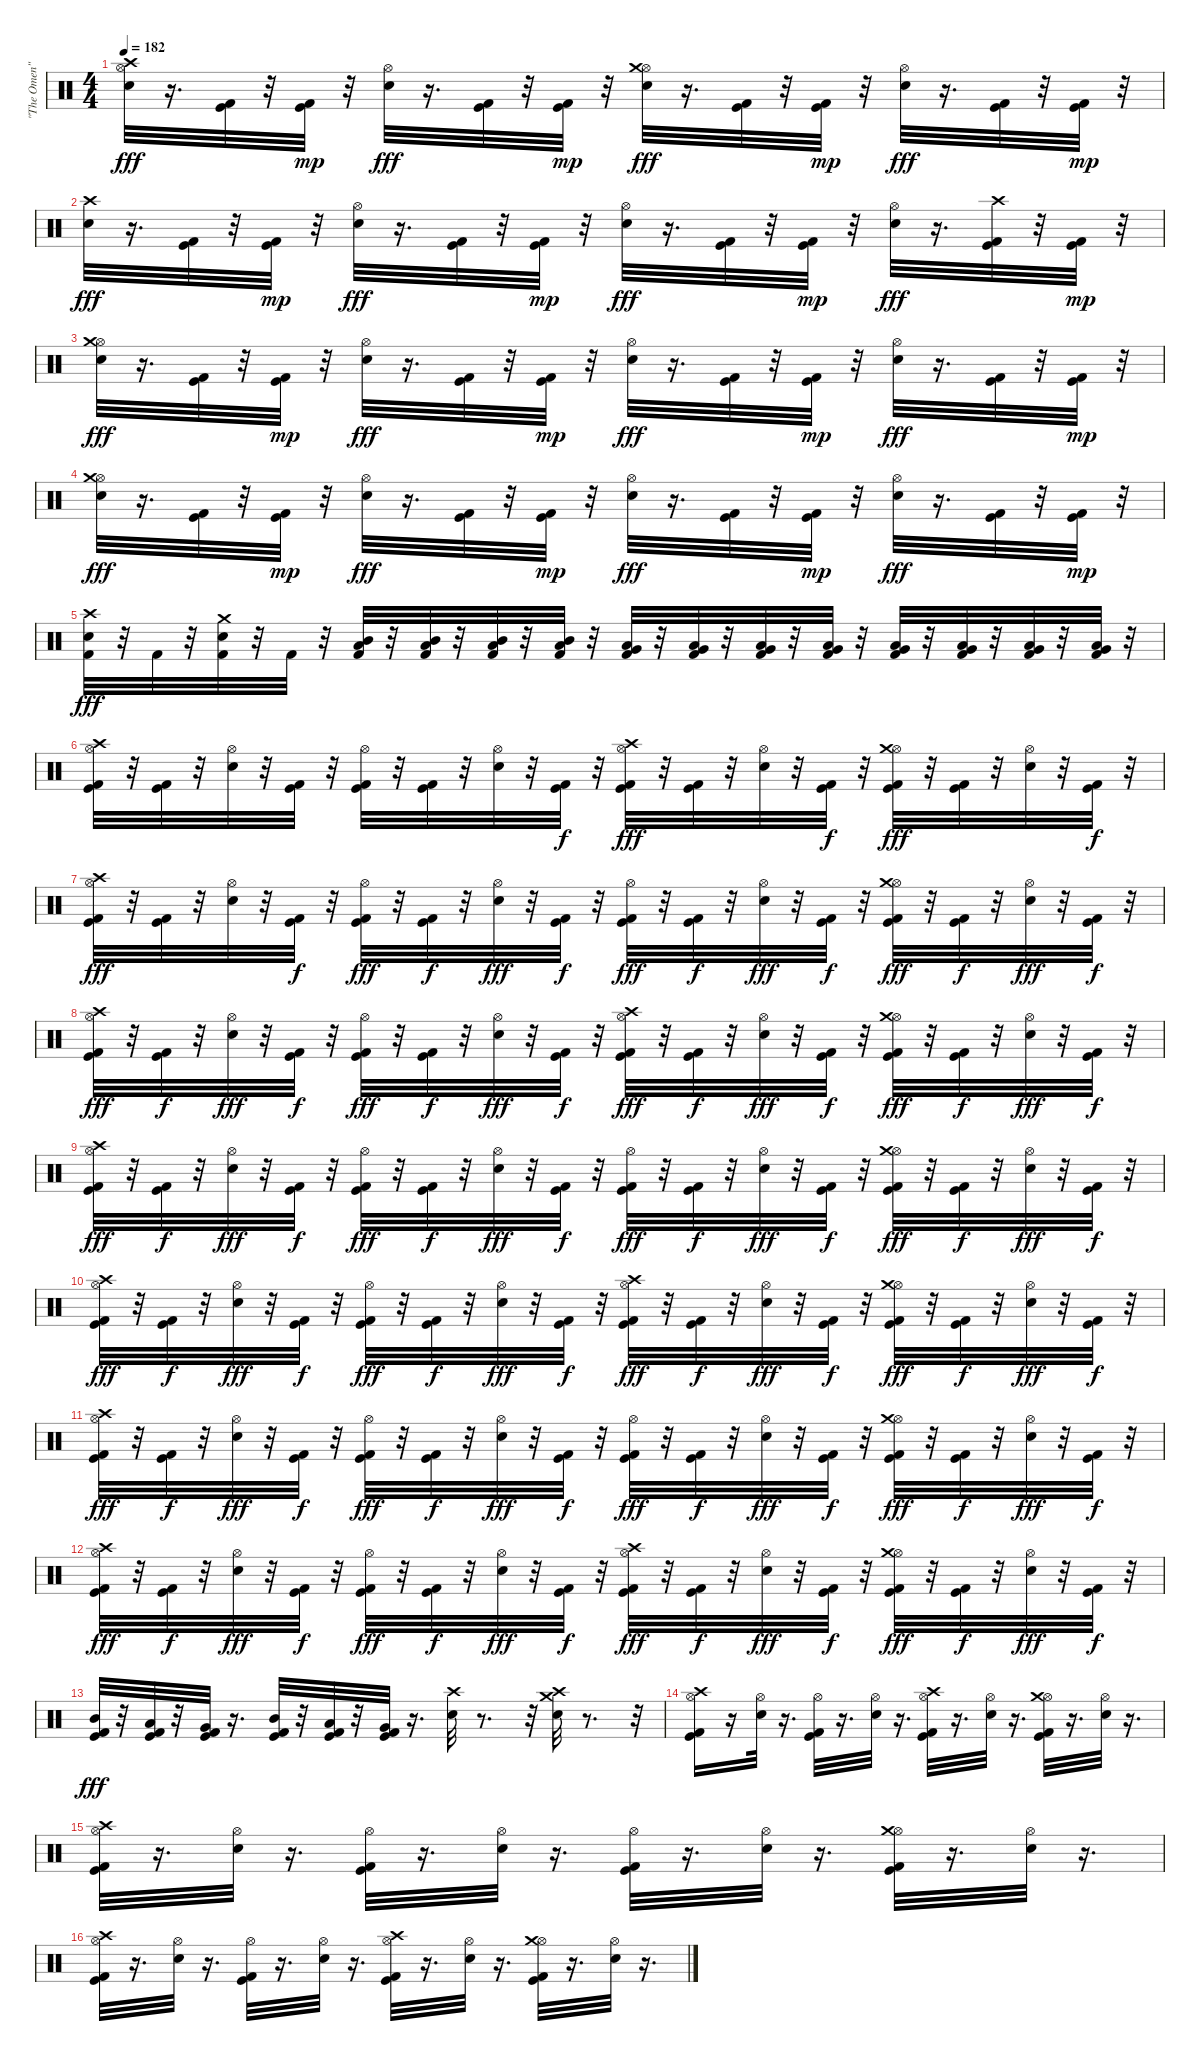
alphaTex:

\track ("\"The Omen\"" "\"The Omen\"") {instrument percussion}
\staff {score}
\articulation defaults
\ts (4 4)
\tempo 182
\clef neutral
\ks c
("Snare (hit) 2" "Hi-Hat (open)" "Crash high (hit)").32{dy fff} r.16{d} ("Kick (hit)" "Kick (hit) 2").32 r.32 ("Kick (hit)" "Kick (hit) 2").32{dy mp} r.32 ("Snare (hit) 2" "Hi-Hat (open)").32{dy fff} r.16{d} ("Kick (hit)" "Kick (hit) 2").32 r.32 ("Kick (hit)" "Kick (hit) 2").32{dy mp} r.32 ("Snare (hit) 2" "Hi-Hat (open)" "Crash medium (hit)").32{dy fff} r.16{d} ("Kick (hit)" "Kick (hit) 2").32 r.32 ("Kick (hit)" "Kick (hit) 2").32{dy mp} r.32 ("Snare (hit) 2" "Hi-Hat (open)").32{dy fff} r.16{d} ("Kick (hit)" "Kick (hit) 2").32 r.32 ("Kick (hit)" "Kick (hit) 2").32{dy mp} r.32 |
("Snare (hit) 2" "Crash high (hit)").32{dy fff} r.16{d} ("Kick (hit)" "Kick (hit) 2").32 r.32 ("Kick (hit)" "Kick (hit) 2").32{dy mp} r.32 ("Snare (hit) 2" "Hi-Hat (open)").32{dy fff} r.16{d} ("Kick (hit)" "Kick (hit) 2").32 r.32 ("Kick (hit)" "Kick (hit) 2").32{dy mp} r.32 ("Snare (hit) 2" "Hi-Hat (open)").32{dy fff} r.16{d} ("Kick (hit)" "Kick (hit) 2").32 r.32 ("Kick (hit)" "Kick (hit) 2").32{dy mp} r.32 ("Snare (hit) 2" "Hi-Hat (open)").32{dy fff} r.16{d} ("Kick (hit)" "Kick (hit) 2" "Crash high (hit)").32 r.32 ("Kick (hit)" "Kick (hit) 2").32{dy mp} r.32 |
("Snare (hit) 2" "Hi-Hat (open)" "Crash medium (hit)").32{dy fff} r.16{d} ("Kick (hit)" "Kick (hit) 2").32 r.32 ("Kick (hit)" "Kick (hit) 2").32{dy mp} r.32 ("Snare (hit) 2" "Hi-Hat (open)").32{dy fff} r.16{d} ("Kick (hit)" "Kick (hit) 2").32 r.32 ("Kick (hit)" "Kick (hit) 2").32{dy mp} r.32 ("Snare (hit) 2" "Hi-Hat (open)").32{dy fff} r.16{d} ("Kick (hit)" "Kick (hit) 2").32 r.32 ("Kick (hit)" "Kick (hit) 2").32{dy mp} r.32 ("Snare (hit) 2" "Hi-Hat (open)").32{dy fff} r.16{d} ("Kick (hit)" "Kick (hit) 2").32 r.32 ("Kick (hit)" "Kick (hit) 2").32{dy mp} r.32 |
("Snare (hit) 2" "Hi-Hat (open)" "Crash medium (hit)").32{dy fff} r.16{d} ("Kick (hit)" "Kick (hit) 2").32 r.32 ("Kick (hit)" "Kick (hit) 2").32{dy mp} r.32 ("Snare (hit) 2" "Hi-Hat (open)").32{dy fff} r.16{d} ("Kick (hit)" "Kick (hit) 2").32 r.32 ("Kick (hit)" "Kick (hit) 2").32{dy mp} r.32 ("Snare (hit) 2" "Hi-Hat (open)").32{dy fff} r.16{d} ("Kick (hit)" "Kick (hit) 2").32 r.32 ("Kick (hit)" "Kick (hit) 2").32{dy mp} r.32 ("Snare (hit) 2" "Hi-Hat (open)").32{dy fff} r.16{d} ("Kick (hit)" "Kick (hit) 2").32 r.32 ("Kick (hit)" "Kick (hit) 2").32{dy mp} r.32 |
("Kick (hit) 2" "Snare (hit) 2" "Crash high (hit)").32{dy fff} r.32 "Kick (hit) 2".32 r.32 ("Kick (hit) 2" "Snare (hit) 2" "Crash medium (hit)").32 r.32 "Kick (hit) 2".32 r.32 ("Kick (hit) 2" "Low Tom (hit)" "Mid Tom (hit)").32 r.32 ("Kick (hit) 2" "Low Tom (hit)" "Mid Tom (hit)").32 r.32 ("Kick (hit) 2" "Low Tom (hit)" "Mid Tom (hit)").32 r.32 ("Kick (hit) 2" "Low Tom (hit)" "Mid Tom (hit)").32 r.32 ("Kick (hit) 2" "Very Low Tom (hit)" "Low Tom (hit)").32 r.32 ("Kick (hit) 2" "Very Low Tom (hit)" "Low Tom (hit)").32 r.32 ("Kick (hit) 2" "Very Low Tom (hit)" "Low Tom (hit)").32 r.32 ("Kick (hit) 2" "Very Low Tom (hit)" "Low Tom (hit)").32 r.32 ("Kick (hit) 2" "Low Floor Tom (hit)" "Very Low Tom (hit)").32 r.32 ("Kick (hit) 2" "Low Floor Tom (hit)" "Very Low Tom (hit)").32 r.32 ("Kick (hit) 2" "Low Floor Tom (hit)" "Very Low Tom (hit)").32 r.32 ("Kick (hit) 2" "Low Floor Tom (hit)" "Very Low Tom (hit)").32 r.32 |
("Kick (hit)" "Kick (hit) 2" "Hi-Hat (open)" "Crash high (hit)").32 r.32 ("Kick (hit)" "Kick (hit) 2").32 r.32 ("Snare (hit) 2" "Hi-Hat (open)").32 r.32 ("Kick (hit)" "Kick (hit) 2").32 r.32 ("Kick (hit)" "Kick (hit) 2" "Hi-Hat (open)").32 r.32 ("Kick (hit)" "Kick (hit) 2").32 r.32 ("Snare (hit) 2" "Hi-Hat (open)").32 r.32 ("Kick (hit)" "Kick (hit) 2").32{dy f} r.32 ("Kick (hit)" "Kick (hit) 2" "Hi-Hat (open)" "Crash high (hit)").32{dy fff} r.32 ("Kick (hit)" "Kick (hit) 2").32 r.32 ("Snare (hit) 2" "Hi-Hat (open)").32 r.32 ("Kick (hit)" "Kick (hit) 2").32{dy f} r.32 ("Kick (hit)" "Kick (hit) 2" "Hi-Hat (open)" "Crash medium (hit)").32{dy fff} r.32 ("Kick (hit)" "Kick (hit) 2").32 r.32 ("Snare (hit) 2" "Hi-Hat (open)").32 r.32 ("Kick (hit)" "Kick (hit) 2").32{dy f} r.32 |
("Kick (hit)" "Kick (hit) 2" "Hi-Hat (open)" "Crash high (hit)").32{dy fff} r.32 ("Kick (hit)" "Kick (hit) 2").32 r.32 ("Snare (hit) 2" "Hi-Hat (open)").32 r.32 ("Kick (hit)" "Kick (hit) 2").32{dy f} r.32 ("Kick (hit)" "Kick (hit) 2" "Hi-Hat (open)").32{dy fff} r.32 ("Kick (hit)" "Kick (hit) 2").32{dy f} r.32 ("Snare (hit) 2" "Hi-Hat (open)").32{dy fff} r.32 ("Kick (hit)" "Kick (hit) 2").32{dy f} r.32 ("Kick (hit)" "Kick (hit) 2" "Hi-Hat (open)").32{dy fff} r.32 ("Kick (hit)" "Kick (hit) 2").32{dy f} r.32 ("Snare (hit) 2" "Hi-Hat (open)").32{dy fff} r.32 ("Kick (hit)" "Kick (hit) 2").32{dy f} r.32 ("Kick (hit)" "Kick (hit) 2" "Hi-Hat (open)" "Crash medium (hit)").32{dy fff} r.32 ("Kick (hit)" "Kick (hit) 2").32{dy f} r.32 ("Snare (hit) 2" "Hi-Hat (open)").32{dy fff} r.32 ("Kick (hit)" "Kick (hit) 2").32{dy f} r.32 |
("Kick (hit)" "Kick (hit) 2" "Hi-Hat (open)" "Crash high (hit)").32{dy fff} r.32 ("Kick (hit)" "Kick (hit) 2").32{dy f} r.32 ("Snare (hit) 2" "Hi-Hat (open)").32{dy fff} r.32 ("Kick (hit)" "Kick (hit) 2").32{dy f} r.32 ("Kick (hit)" "Kick (hit) 2" "Hi-Hat (open)").32{dy fff} r.32 ("Kick (hit)" "Kick (hit) 2").32{dy f} r.32 ("Snare (hit) 2" "Hi-Hat (open)").32{dy fff} r.32 ("Kick (hit)" "Kick (hit) 2").32{dy f} r.32 ("Kick (hit)" "Kick (hit) 2" "Hi-Hat (open)" "Crash high (hit)").32{dy fff} r.32 ("Kick (hit)" "Kick (hit) 2").32{dy f} r.32 ("Snare (hit) 2" "Hi-Hat (open)").32{dy fff} r.32 ("Kick (hit)" "Kick (hit) 2").32{dy f} r.32 ("Kick (hit)" "Kick (hit) 2" "Hi-Hat (open)" "Crash medium (hit)").32{dy fff} r.32 ("Kick (hit)" "Kick (hit) 2").32{dy f} r.32 ("Snare (hit) 2" "Hi-Hat (open)").32{dy fff} r.32 ("Kick (hit)" "Kick (hit) 2").32{dy f} r.32 |
("Kick (hit)" "Kick (hit) 2" "Hi-Hat (open)" "Crash high (hit)").32{dy fff} r.32 ("Kick (hit)" "Kick (hit) 2").32{dy f} r.32 ("Snare (hit) 2" "Hi-Hat (open)").32{dy fff} r.32 ("Kick (hit)" "Kick (hit) 2").32{dy f} r.32 ("Kick (hit)" "Kick (hit) 2" "Hi-Hat (open)").32{dy fff} r.32 ("Kick (hit)" "Kick (hit) 2").32{dy f} r.32 ("Snare (hit) 2" "Hi-Hat (open)").32{dy fff} r.32 ("Kick (hit)" "Kick (hit) 2").32{dy f} r.32 ("Kick (hit)" "Kick (hit) 2" "Hi-Hat (open)").32{dy fff} r.32 ("Kick (hit)" "Kick (hit) 2").32{dy f} r.32 ("Snare (hit) 2" "Hi-Hat (open)").32{dy fff} r.32 ("Kick (hit)" "Kick (hit) 2").32{dy f} r.32 ("Kick (hit)" "Kick (hit) 2" "Hi-Hat (open)" "Crash medium (hit)").32{dy fff} r.32 ("Kick (hit)" "Kick (hit) 2").32{dy f} r.32 ("Snare (hit) 2" "Hi-Hat (open)").32{dy fff} r.32 ("Kick (hit)" "Kick (hit) 2").32{dy f} r.32 |
("Kick (hit)" "Kick (hit) 2" "Hi-Hat (open)" "Crash high (hit)").32{dy fff} r.32 ("Kick (hit)" "Kick (hit) 2").32{dy f} r.32 ("Snare (hit) 2" "Hi-Hat (open)").32{dy fff} r.32 ("Kick (hit)" "Kick (hit) 2").32{dy f} r.32 ("Kick (hit)" "Kick (hit) 2" "Hi-Hat (open)").32{dy fff} r.32 ("Kick (hit)" "Kick (hit) 2").32{dy f} r.32 ("Snare (hit) 2" "Hi-Hat (open)").32{dy fff} r.32 ("Kick (hit)" "Kick (hit) 2").32{dy f} r.32 ("Kick (hit)" "Kick (hit) 2" "Hi-Hat (open)" "Crash high (hit)").32{dy fff} r.32 ("Kick (hit)" "Kick (hit) 2").32{dy f} r.32 ("Snare (hit) 2" "Hi-Hat (open)").32{dy fff} r.32 ("Kick (hit)" "Kick (hit) 2").32{dy f} r.32 ("Kick (hit)" "Kick (hit) 2" "Hi-Hat (open)" "Crash medium (hit)").32{dy fff} r.32 ("Kick (hit)" "Kick (hit) 2").32{dy f} r.32 ("Snare (hit) 2" "Hi-Hat (open)").32{dy fff} r.32 ("Kick (hit)" "Kick (hit) 2").32{dy f} r.32 |
("Kick (hit)" "Kick (hit) 2" "Hi-Hat (open)" "Crash high (hit)").32{dy fff} r.32 ("Kick (hit)" "Kick (hit) 2").32{dy f} r.32 ("Snare (hit) 2" "Hi-Hat (open)").32{dy fff} r.32 ("Kick (hit)" "Kick (hit) 2").32{dy f} r.32 ("Kick (hit)" "Kick (hit) 2" "Hi-Hat (open)").32{dy fff} r.32 ("Kick (hit)" "Kick (hit) 2").32{dy f} r.32 ("Snare (hit) 2" "Hi-Hat (open)").32{dy fff} r.32 ("Kick (hit)" "Kick (hit) 2").32{dy f} r.32 ("Kick (hit)" "Kick (hit) 2" "Hi-Hat (open)").32{dy fff} r.32 ("Kick (hit)" "Kick (hit) 2").32{dy f} r.32 ("Snare (hit) 2" "Hi-Hat (open)").32{dy fff} r.32 ("Kick (hit)" "Kick (hit) 2").32{dy f} r.32 ("Kick (hit)" "Kick (hit) 2" "Hi-Hat (open)" "Crash medium (hit)").32{dy fff} r.32 ("Kick (hit)" "Kick (hit) 2").32{dy f} r.32 ("Snare (hit) 2" "Hi-Hat (open)").32{dy fff} r.32 ("Kick (hit)" "Kick (hit) 2").32{dy f} r.32 |
("Kick (hit)" "Kick (hit) 2" "Hi-Hat (open)" "Crash high (hit)").32{dy fff} r.32 ("Kick (hit)" "Kick (hit) 2").32{dy f} r.32 ("Snare (hit) 2" "Hi-Hat (open)").32{dy fff} r.32 ("Kick (hit)" "Kick (hit) 2").32{dy f} r.32 ("Kick (hit)" "Kick (hit) 2" "Hi-Hat (open)").32{dy fff} r.32 ("Kick (hit)" "Kick (hit) 2").32{dy f} r.32 ("Snare (hit) 2" "Hi-Hat (open)").32{dy fff} r.32 ("Kick (hit)" "Kick (hit) 2").32{dy f} r.32 ("Kick (hit)" "Kick (hit) 2" "Hi-Hat (open)" "Crash high (hit)").32{dy fff} r.32 ("Kick (hit)" "Kick (hit) 2").32{dy f} r.32 ("Snare (hit) 2" "Hi-Hat (open)").32{dy fff} r.32 ("Kick (hit)" "Kick (hit) 2").32{dy f} r.32 ("Kick (hit)" "Kick (hit) 2" "Hi-Hat (open)" "Crash medium (hit)").32{dy fff} r.32 ("Kick (hit)" "Kick (hit) 2").32{dy f} r.32 ("Snare (hit) 2" "Hi-Hat (open)").32{dy fff} r.32 ("Kick (hit)" "Kick (hit) 2").32{dy f} r.32 |
("Kick (hit)" "Kick (hit) 2" "Mid Tom (hit)").32{dy fff} r.32 ("Kick (hit)" "Kick (hit) 2" "Low Tom (hit)").32 r.32 ("Kick (hit)" "Kick (hit) 2" "Very Low Tom (hit)").32 r.16{d} ("Kick (hit)" "Kick (hit) 2" "Mid Tom (hit)").32 r.32 ("Kick (hit)" "Kick (hit) 2" "Low Tom (hit)").32 r.32 ("Kick (hit)" "Kick (hit) 2" "Very Low Tom (hit)").32 r.16{d} ("Snare (hit) 2" "Crash high (hit)").32 r.8{d} r.32 ("Snare (hit) 2" "Crash high (hit)" "Crash medium (hit)").32 r.8{d} r.32 |
("Kick (hit)" "Kick (hit) 2" "Hi-Hat (open)" "Crash high (hit)").16 r.16 ("Snare (hit) 2" "Hi-Hat (open)").32 r.16{d} ("Kick (hit)" "Kick (hit) 2" "Hi-Hat (open)").32 r.16{d} ("Snare (hit) 2" "Hi-Hat (open)").32 r.16{d} ("Kick (hit)" "Kick (hit) 2" "Hi-Hat (open)" "Crash high (hit)").32 r.16{d} ("Snare (hit) 2" "Hi-Hat (open)").32 r.16{d} ("Kick (hit)" "Kick (hit) 2" "Hi-Hat (open)" "Crash medium (hit)").32 r.16{d} ("Snare (hit) 2" "Hi-Hat (open)").32 r.16{d} |
("Kick (hit)" "Kick (hit) 2" "Hi-Hat (open)" "Crash high (hit)").32 r.16{d} ("Snare (hit) 2" "Hi-Hat (open)").32 r.16{d} ("Kick (hit)" "Kick (hit) 2" "Hi-Hat (open)").32 r.16{d} ("Snare (hit) 2" "Hi-Hat (open)").32 r.16{d} ("Kick (hit)" "Kick (hit) 2" "Hi-Hat (open)").32 r.16{d} ("Snare (hit) 2" "Hi-Hat (open)").32 r.16{d} ("Kick (hit)" "Kick (hit) 2" "Hi-Hat (open)" "Crash medium (hit)").32 r.16{d} ("Snare (hit) 2" "Hi-Hat (open)").32 r.16{d} |
("Kick (hit)" "Kick (hit) 2" "Hi-Hat (open)" "Crash high (hit)").32 r.16{d} ("Snare (hit) 2" "Hi-Hat (open)").32 r.16{d} ("Kick (hit)" "Kick (hit) 2" "Hi-Hat (open)").32 r.16{d} ("Snare (hit) 2" "Hi-Hat (open)").32 r.16{d} ("Kick (hit)" "Kick (hit) 2" "Hi-Hat (open)" "Crash high (hit)").32 r.16{d} ("Snare (hit) 2" "Hi-Hat (open)").32 r.16{d} ("Kick (hit)" "Kick (hit) 2" "Hi-Hat (open)" "Crash medium (hit)").32 r.16{d} ("Snare (hit) 2" "Hi-Hat (open)").32 r.16{d}
